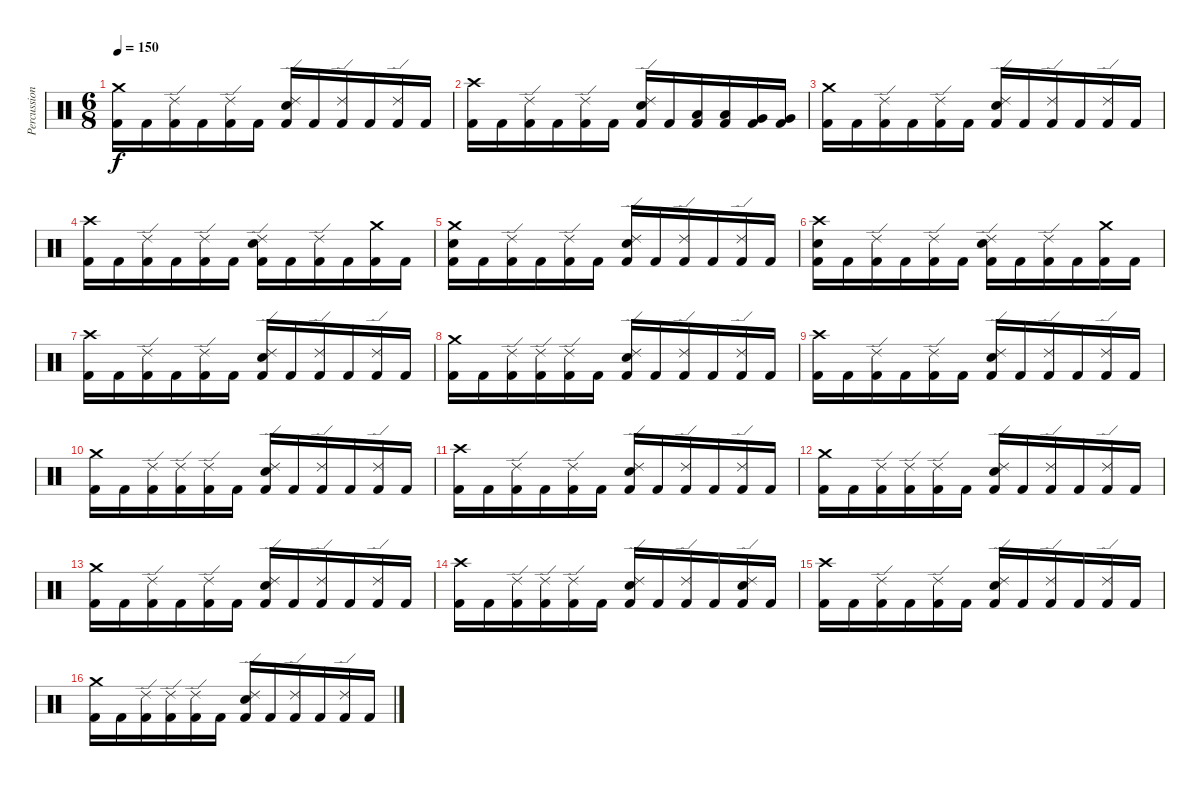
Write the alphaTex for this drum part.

\track ("Percussion" "Percussion") {instrument percussion}
\staff {score}
\articulation defaults
\ts (6 8)
\tempo 150
\clef neutral
\ks c
("Crash medium (hit)" "Kick (hit) 2").16{dy f} "Kick (hit) 2".16 ("Ride (edge) 2" "Kick (hit) 2").16 "Kick (hit) 2".16 ("Ride (edge) 2" "Kick (hit) 2").16 "Kick (hit) 2".16 ("Ride (edge) 2" "Electric Snare (hit)" "Kick (hit) 2").16 "Kick (hit) 2".16 ("Ride (edge) 2" "Kick (hit) 2").16 "Kick (hit) 2".16 ("Ride (edge) 2" "Kick (hit) 2").16 "Kick (hit) 2".16 |
("Crash high (hit)" "Kick (hit) 2").16 "Kick (hit) 2".16 ("Ride (edge) 2" "Kick (hit) 2").16 "Kick (hit) 2".16 ("Ride (edge) 2" "Kick (hit) 2").16 "Kick (hit) 2".16 ("Ride (edge) 2" "Electric Snare (hit)" "Kick (hit) 2").16 "Kick (hit) 2".16 ("Low Tom (hit)" "Kick (hit) 2").16 ("Low Tom (hit)" "Kick (hit) 2").16 ("Very Low Tom (hit)" "Kick (hit) 2").16 ("Very Low Tom (hit)" "Kick (hit) 2").16 |
("Crash medium (hit)" "Kick (hit) 2").16 "Kick (hit) 2".16 ("Ride (edge) 2" "Kick (hit) 2").16 "Kick (hit) 2".16 ("Ride (edge) 2" "Kick (hit) 2").16 "Kick (hit) 2".16 ("Ride (edge) 2" "Electric Snare (hit)" "Kick (hit) 2").16 "Kick (hit) 2".16 ("Ride (edge) 2" "Kick (hit) 2").16 "Kick (hit) 2".16 ("Ride (edge) 2" "Kick (hit) 2").16 "Kick (hit) 2".16 |
("Crash high (hit)" "Kick (hit) 2").16 "Kick (hit) 2".16 ("Ride (edge) 2" "Kick (hit) 2").16 "Kick (hit) 2".16 ("Ride (edge) 2" "Kick (hit) 2").16 "Kick (hit) 2".16 ("Ride (edge) 2" "Electric Snare (hit)" "Kick (hit) 2").16 "Kick (hit) 2".16 ("Ride (edge) 2" "Kick (hit) 2").16 "Kick (hit) 2".16 ("Crash medium (hit)" "Kick (hit) 2").16 "Kick (hit) 2".16 |
("Crash medium (hit)" "Electric Snare (hit)" "Kick (hit) 2").16 "Kick (hit) 2".16 ("Ride (edge) 2" "Kick (hit) 2").16 "Kick (hit) 2".16 ("Ride (edge) 2" "Kick (hit) 2").16 "Kick (hit) 2".16 ("Ride (edge) 2" "Electric Snare (hit)" "Kick (hit) 2").16 "Kick (hit) 2".16 ("Ride (edge) 2" "Kick (hit) 2").16 "Kick (hit) 2".16 ("Ride (edge) 2" "Kick (hit) 2").16 "Kick (hit) 2".16 |
("Crash high (hit)" "Electric Snare (hit)" "Kick (hit) 2").16 "Kick (hit) 2".16 ("Ride (edge) 2" "Kick (hit) 2").16 "Kick (hit) 2".16 ("Ride (edge) 2" "Kick (hit) 2").16 "Kick (hit) 2".16 ("Ride (edge) 2" "Electric Snare (hit)" "Kick (hit) 2").16 "Kick (hit) 2".16 ("Ride (edge) 2" "Kick (hit) 2").16 "Kick (hit) 2".16 ("Crash medium (hit)" "Kick (hit) 2").16 "Kick (hit) 2".16 |
("Crash high (hit)" "Kick (hit) 2").16 "Kick (hit) 2".16 ("Ride (edge) 2" "Kick (hit) 2").16 "Kick (hit) 2".16 ("Ride (edge) 2" "Kick (hit) 2").16 "Kick (hit) 2".16 ("Ride (edge) 2" "Electric Snare (hit)" "Kick (hit) 2").16 "Kick (hit) 2".16 ("Ride (edge) 2" "Kick (hit) 2").16 "Kick (hit) 2".16 ("Ride (edge) 2" "Kick (hit) 2").16 "Kick (hit) 2".16 |
("Crash medium (hit)" "Kick (hit) 2").16 "Kick (hit) 2".16 ("Ride (edge) 2" "Kick (hit) 2").16 ("Ride (edge) 2" "Kick (hit) 2").16 ("Ride (edge) 2" "Kick (hit) 2").16 "Kick (hit) 2".16 ("Ride (edge) 2" "Electric Snare (hit)" "Kick (hit) 2").16 "Kick (hit) 2".16 ("Ride (edge) 2" "Kick (hit) 2").16 "Kick (hit) 2".16 ("Ride (edge) 2" "Kick (hit) 2").16 "Kick (hit) 2".16 |
("Crash high (hit)" "Kick (hit) 2").16 "Kick (hit) 2".16 ("Ride (edge) 2" "Kick (hit) 2").16 "Kick (hit) 2".16 ("Ride (edge) 2" "Kick (hit) 2").16 "Kick (hit) 2".16 ("Ride (edge) 2" "Electric Snare (hit)" "Kick (hit) 2").16 "Kick (hit) 2".16 ("Ride (edge) 2" "Kick (hit) 2").16 "Kick (hit) 2".16 ("Ride (edge) 2" "Kick (hit) 2").16 "Kick (hit) 2".16 |
("Crash medium (hit)" "Kick (hit) 2").16 "Kick (hit) 2".16 ("Ride (edge) 2" "Kick (hit) 2").16 ("Ride (edge) 2" "Kick (hit) 2").16 ("Ride (edge) 2" "Kick (hit) 2").16 "Kick (hit) 2".16 ("Ride (edge) 2" "Electric Snare (hit)" "Kick (hit) 2").16 "Kick (hit) 2".16 ("Ride (edge) 2" "Kick (hit) 2").16 "Kick (hit) 2".16 ("Ride (edge) 2" "Kick (hit) 2").16 "Kick (hit) 2".16 |
("Crash high (hit)" "Kick (hit) 2").16 "Kick (hit) 2".16 ("Ride (edge) 2" "Kick (hit) 2").16 "Kick (hit) 2".16 ("Ride (edge) 2" "Kick (hit) 2").16 "Kick (hit) 2".16 ("Ride (edge) 2" "Electric Snare (hit)" "Kick (hit) 2").16 "Kick (hit) 2".16 ("Ride (edge) 2" "Kick (hit) 2").16 "Kick (hit) 2".16 ("Ride (edge) 2" "Kick (hit) 2").16 "Kick (hit) 2".16 |
("Crash medium (hit)" "Kick (hit) 2").16 "Kick (hit) 2".16 ("Ride (edge) 2" "Kick (hit) 2").16 ("Ride (edge) 2" "Kick (hit) 2").16 ("Ride (edge) 2" "Kick (hit) 2").16 "Kick (hit) 2".16 ("Ride (edge) 2" "Electric Snare (hit)" "Kick (hit) 2").16 "Kick (hit) 2".16 ("Ride (edge) 2" "Kick (hit) 2").16 "Kick (hit) 2".16 ("Ride (edge) 2" "Kick (hit) 2").16 "Kick (hit) 2".16 |
("Crash medium (hit)" "Kick (hit) 2").16 "Kick (hit) 2".16 ("Ride (edge) 2" "Kick (hit) 2").16 "Kick (hit) 2".16 ("Ride (edge) 2" "Kick (hit) 2").16 "Kick (hit) 2".16 ("Ride (edge) 2" "Electric Snare (hit)" "Kick (hit) 2").16 "Kick (hit) 2".16 ("Ride (edge) 2" "Kick (hit) 2").16 "Kick (hit) 2".16 ("Ride (edge) 2" "Kick (hit) 2").16 "Kick (hit) 2".16 |
("Crash high (hit)" "Kick (hit) 2").16 "Kick (hit) 2".16 ("Ride (edge) 2" "Kick (hit) 2").16 ("Ride (edge) 2" "Kick (hit) 2").16 ("Ride (edge) 2" "Kick (hit) 2").16 "Kick (hit) 2".16 ("Ride (edge) 2" "Electric Snare (hit)" "Kick (hit) 2").16 "Kick (hit) 2".16 ("Ride (edge) 2" "Kick (hit) 2").16 "Kick (hit) 2".16 ("Ride (edge) 2" "Electric Snare (hit)" "Kick (hit) 2").16 "Kick (hit) 2".16 |
("Crash high (hit)" "Kick (hit) 2").16 "Kick (hit) 2".16 ("Ride (edge) 2" "Kick (hit) 2").16 "Kick (hit) 2".16 ("Ride (edge) 2" "Kick (hit) 2").16 "Kick (hit) 2".16 ("Ride (edge) 2" "Electric Snare (hit)" "Kick (hit) 2").16 "Kick (hit) 2".16 ("Ride (edge) 2" "Kick (hit) 2").16 "Kick (hit) 2".16 ("Ride (edge) 2" "Kick (hit) 2").16 "Kick (hit) 2".16 |
("Crash medium (hit)" "Kick (hit) 2").16 "Kick (hit) 2".16 ("Ride (edge) 2" "Kick (hit) 2").16 ("Ride (edge) 2" "Kick (hit) 2").16 ("Ride (edge) 2" "Kick (hit) 2").16 "Kick (hit) 2".16 ("Ride (edge) 2" "Electric Snare (hit)" "Kick (hit) 2").16 "Kick (hit) 2".16 ("Ride (edge) 2" "Kick (hit) 2").16 "Kick (hit) 2".16 ("Ride (edge) 2" "Kick (hit) 2").16 "Kick (hit) 2".16
